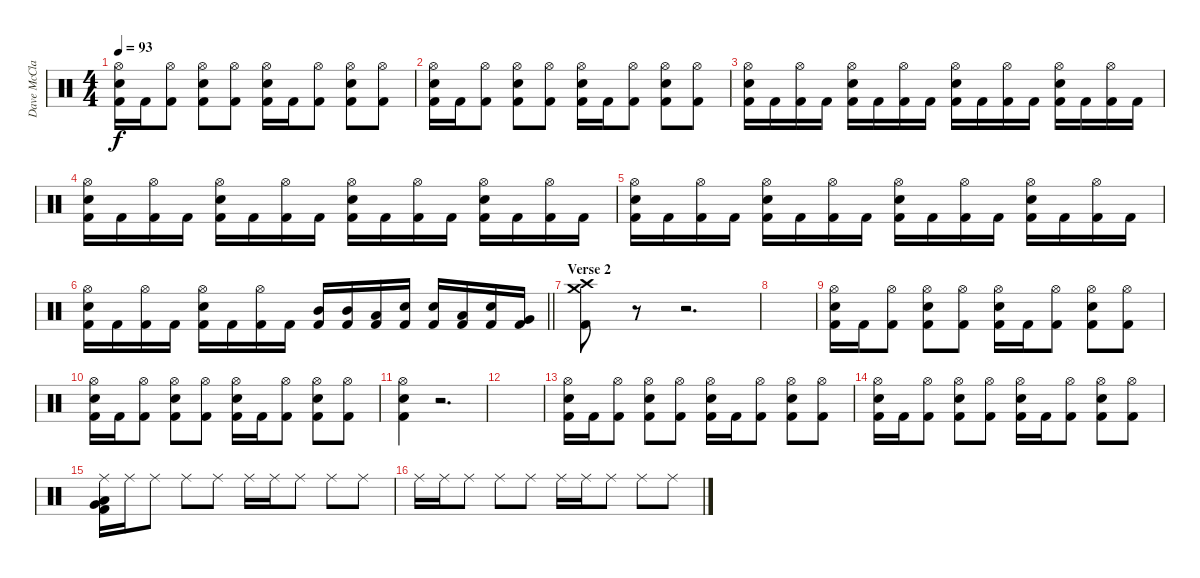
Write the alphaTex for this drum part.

\track ("Dave McClain" "Dave McCla") {instrument percussion}
\staff {score}
\articulation defaults
\ts (4 4)
\tempo 93
\clef neutral
\ks c
("Hi-Hat (open)" "Snare (hit) 2" "Kick (hit) 2").16{dy f} "Kick (hit) 2".16 ("Hi-Hat (open)" "Kick (hit) 2").8 ("Hi-Hat (open)" "Snare (hit) 2" "Kick (hit) 2").8 ("Hi-Hat (open)" "Kick (hit) 2").8 ("Hi-Hat (open)" "Snare (hit) 2" "Kick (hit) 2").16 "Kick (hit) 2".16 ("Hi-Hat (open)" "Kick (hit) 2").8 ("Hi-Hat (open)" "Snare (hit) 2" "Kick (hit) 2").8 ("Hi-Hat (open)" "Kick (hit) 2").8 |
("Hi-Hat (open)" "Snare (hit) 2" "Kick (hit) 2").16 "Kick (hit) 2".16 ("Hi-Hat (open)" "Kick (hit) 2").8 ("Hi-Hat (open)" "Snare (hit) 2" "Kick (hit) 2").8 ("Hi-Hat (open)" "Kick (hit) 2").8 ("Hi-Hat (open)" "Snare (hit) 2" "Kick (hit) 2").16 "Kick (hit) 2".16 ("Hi-Hat (open)" "Kick (hit) 2").8 ("Hi-Hat (open)" "Snare (hit) 2" "Kick (hit) 2").8 ("Hi-Hat (open)" "Kick (hit) 2").8 |
("Hi-Hat (open)" "Snare (hit) 2" "Kick (hit) 2").16 "Kick (hit) 2".16 ("Hi-Hat (open)" "Kick (hit) 2").16 "Kick (hit) 2".16 ("Hi-Hat (open)" "Snare (hit) 2" "Kick (hit) 2").16 "Kick (hit) 2".16 ("Hi-Hat (open)" "Kick (hit) 2").16 "Kick (hit) 2".16 ("Hi-Hat (open)" "Snare (hit) 2" "Kick (hit) 2").16 "Kick (hit) 2".16 ("Hi-Hat (open)" "Kick (hit) 2").16 "Kick (hit) 2".16 ("Hi-Hat (open)" "Snare (hit) 2" "Kick (hit) 2").16 "Kick (hit) 2".16 ("Hi-Hat (open)" "Kick (hit) 2").16 "Kick (hit) 2".16 |
("Hi-Hat (open)" "Snare (hit) 2" "Kick (hit) 2").16 "Kick (hit) 2".16 ("Hi-Hat (open)" "Kick (hit) 2").16 "Kick (hit) 2".16 ("Hi-Hat (open)" "Snare (hit) 2" "Kick (hit) 2").16 "Kick (hit) 2".16 ("Hi-Hat (open)" "Kick (hit) 2").16 "Kick (hit) 2".16 ("Hi-Hat (open)" "Snare (hit) 2" "Kick (hit) 2").16 "Kick (hit) 2".16 ("Hi-Hat (open)" "Kick (hit) 2").16 "Kick (hit) 2".16 ("Hi-Hat (open)" "Snare (hit) 2" "Kick (hit) 2").16 "Kick (hit) 2".16 ("Hi-Hat (open)" "Kick (hit) 2").16 "Kick (hit) 2".16 |
("Hi-Hat (open)" "Snare (hit) 2" "Kick (hit) 2").16 "Kick (hit) 2".16 ("Hi-Hat (open)" "Kick (hit) 2").16 "Kick (hit) 2".16 ("Hi-Hat (open)" "Snare (hit) 2" "Kick (hit) 2").16 "Kick (hit) 2".16 ("Hi-Hat (open)" "Kick (hit) 2").16 "Kick (hit) 2".16 ("Hi-Hat (open)" "Snare (hit) 2" "Kick (hit) 2").16 "Kick (hit) 2".16 ("Hi-Hat (open)" "Kick (hit) 2").16 "Kick (hit) 2".16 ("Hi-Hat (open)" "Snare (hit) 2" "Kick (hit) 2").16 "Kick (hit) 2".16 ("Hi-Hat (open)" "Kick (hit) 2").16 "Kick (hit) 2".16 |
\barLineRight lightlight
("Hi-Hat (open)" "Snare (hit) 2" "Kick (hit) 2").16 "Kick (hit) 2".16 ("Hi-Hat (open)" "Kick (hit) 2").16 "Kick (hit) 2".16 ("Hi-Hat (open)" "Snare (hit) 2" "Kick (hit) 2").16 "Kick (hit) 2".16 ("Hi-Hat (open)" "Kick (hit) 2").16 "Kick (hit) 2".16 ("Mid Tom (hit)" "Kick (hit) 2").16 ("Mid Tom (hit)" "Kick (hit) 2").16 ("Low Tom (hit)" "Kick (hit) 2").16 ("Snare (hit) 2" "Kick (hit) 2").16 ("Snare (hit) 2" "Kick (hit) 2").16 ("Low Tom (hit)" "Kick (hit) 2").16 ("Snare (hit) 2" "Kick (hit) 2").16 ("Very Low Tom (hit)" "Kick (hit) 2").16 |
\section ("" "Verse 2")
("Crash medium (hit)" "Crash high (hit)" "Kick (hit) 2").8 r.8 r.2{d} |
|
("Hi-Hat (open)" "Snare (hit) 2" "Kick (hit) 2").16 "Kick (hit) 2".16 ("Hi-Hat (open)" "Kick (hit) 2").8 ("Hi-Hat (open)" "Snare (hit) 2" "Kick (hit) 2").8 ("Hi-Hat (open)" "Kick (hit) 2").8 ("Hi-Hat (open)" "Snare (hit) 2" "Kick (hit) 2").16 "Kick (hit) 2".16 ("Hi-Hat (open)" "Kick (hit) 2").8 ("Hi-Hat (open)" "Snare (hit) 2" "Kick (hit) 2").8 ("Hi-Hat (open)" "Kick (hit) 2").8 |
("Hi-Hat (open)" "Snare (hit) 2" "Kick (hit) 2").16 "Kick (hit) 2".16 ("Hi-Hat (open)" "Kick (hit) 2").8 ("Hi-Hat (open)" "Snare (hit) 2" "Kick (hit) 2").8 ("Hi-Hat (open)" "Kick (hit) 2").8 ("Hi-Hat (open)" "Snare (hit) 2" "Kick (hit) 2").16 "Kick (hit) 2".16 ("Hi-Hat (open)" "Kick (hit) 2").8 ("Hi-Hat (open)" "Snare (hit) 2" "Kick (hit) 2").8 ("Hi-Hat (open)" "Kick (hit) 2").8 |
("Hi-Hat (open)" "Snare (hit) 2" "Kick (hit) 2").4 r.2{d} |
|
("Hi-Hat (open)" "Snare (hit) 2" "Kick (hit) 2").16 "Kick (hit) 2".16 ("Hi-Hat (open)" "Kick (hit) 2").8 ("Hi-Hat (open)" "Snare (hit) 2" "Kick (hit) 2").8 ("Hi-Hat (open)" "Kick (hit) 2").8 ("Hi-Hat (open)" "Snare (hit) 2" "Kick (hit) 2").16 "Kick (hit) 2".16 ("Hi-Hat (open)" "Kick (hit) 2").8 ("Hi-Hat (open)" "Snare (hit) 2" "Kick (hit) 2").8 ("Hi-Hat (open)" "Kick (hit) 2").8 |
("Hi-Hat (open)" "Snare (hit) 2" "Kick (hit) 2").16 "Kick (hit) 2".16 ("Hi-Hat (open)" "Kick (hit) 2").8 ("Hi-Hat (open)" "Snare (hit) 2" "Kick (hit) 2").8 ("Hi-Hat (open)" "Kick (hit) 2").8 ("Hi-Hat (open)" "Snare (hit) 2" "Kick (hit) 2").16 "Kick (hit) 2".16 ("Hi-Hat (open)" "Kick (hit) 2").8 ("Hi-Hat (open)" "Snare (hit) 2" "Kick (hit) 2").8 ("Hi-Hat (open)" "Kick (hit) 2").8 |
("Ride (middle)" "Low Floor Tom (hit)" "Very Low Tom (hit)" "Kick (hit) 2").16 "Ride (middle)".16 "Ride (middle)".8 "Ride (middle)".8 "Ride (middle)".8 "Ride (middle)".16 "Ride (middle)".16 "Ride (middle)".8 "Ride (middle)".8 "Ride (middle)".8 |
"Ride (middle)".16 "Ride (middle)".16 "Ride (middle)".8 "Ride (middle)".8 "Ride (middle)".8 "Ride (middle)".16 "Ride (middle)".16 "Ride (middle)".8 "Ride (middle)".8 "Ride (middle)".8
